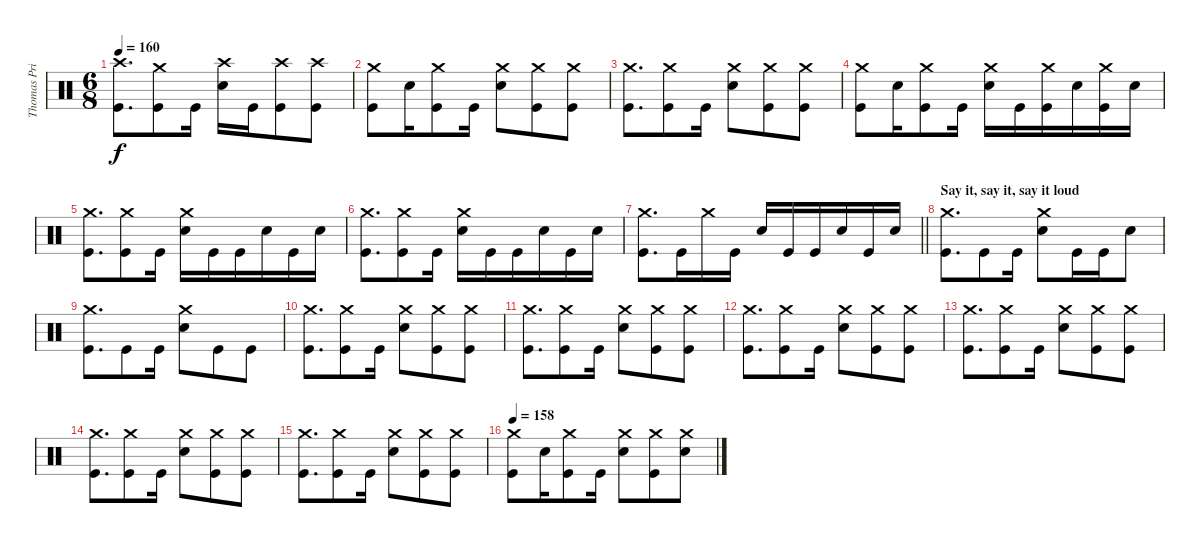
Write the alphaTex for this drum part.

\track ("Thomas Pridgen" "Thomas Pri") {instrument percussion}
\staff {score}
\articulation defaults
\ts (6 8)
\tempo 160
\clef neutral
\ks c
("Crash high (hit)" "Kick (hit)").8{d dy f} ("Crash medium (hit)" "Kick (hit)").8 "Kick (hit)".16 ("Crash high (hit)" "Snare (hit) 2").16 "Kick (hit)".16 ("Crash high (hit)" "Kick (hit)").8 ("Crash high (hit)" "Kick (hit)").8 |
("Crash medium (hit)" "Kick (hit)").8 "Snare (hit) 2".16 ("Crash medium (hit)" "Kick (hit)").8 "Kick (hit)".16 ("Crash medium (hit)" "Snare (hit) 2").8 ("Crash medium (hit)" "Kick (hit)").8 ("Crash medium (hit)" "Kick (hit)").8 |
("Crash medium (hit)" "Kick (hit)").8{d} ("Crash medium (hit)" "Kick (hit)").8 "Kick (hit)".16 ("Crash medium (hit)" "Snare (hit) 2").8 ("Crash medium (hit)" "Kick (hit)").8 ("Crash medium (hit)" "Kick (hit)").8 |
("Crash medium (hit)" "Kick (hit)").8 "Snare (hit) 2".16 ("Crash medium (hit)" "Kick (hit)").8 "Kick (hit)".16 ("Crash medium (hit)" "Snare (hit) 2").16 "Kick (hit)".16 ("Crash medium (hit)" "Kick (hit)").16 "Snare (hit) 2".16 ("Crash medium (hit)" "Kick (hit)").16 "Snare (hit) 2".16 |
("Crash medium (hit)" "Kick (hit)").8{d} ("Crash medium (hit)" "Kick (hit)").8 "Kick (hit)".16 ("Crash medium (hit)" "Snare (hit) 2").16 "Kick (hit)".16 "Kick (hit)".16 "Snare (hit) 2".16 "Kick (hit)".16 "Snare (hit) 2".16 |
("Crash medium (hit)" "Kick (hit)").8{d} ("Crash medium (hit)" "Kick (hit)").8 "Kick (hit)".16 ("Crash medium (hit)" "Snare (hit) 2").16 "Kick (hit)".16 "Kick (hit)".16 "Snare (hit) 2".16 "Kick (hit)".16 "Snare (hit) 2".16 |
\barLineRight lightlight
("Crash medium (hit)" "Kick (hit)").8{d} "Kick (hit)".16 "Crash medium (hit)".16 "Kick (hit)".16 "Snare (hit) 2".16 "Kick (hit)".16 "Kick (hit)".16 "Snare (hit) 2".16 "Kick (hit)".16 "Snare (hit) 2".16 |
\section ("" "Say it, say it, say it loud")
("Crash medium (hit)" "Kick (hit)").8{d} "Kick (hit)".8 "Kick (hit)".16 ("Crash medium (hit)" "Snare (hit) 2").8 "Kick (hit)".16 "Kick (hit)".16 "Snare (hit) 2".8 |
("Crash medium (hit)" "Kick (hit)").8{d} "Kick (hit)".8 "Kick (hit)".16 ("Crash medium (hit)" "Snare (hit) 2").8 "Kick (hit)".8 "Kick (hit)".8 |
("Crash medium (hit)" "Kick (hit)").8{d} ("Crash medium (hit)" "Kick (hit)").8 "Kick (hit)".16 ("Crash medium (hit)" "Snare (hit) 2").8 ("Crash medium (hit)" "Kick (hit)").8 ("Crash medium (hit)" "Kick (hit)").8 |
("Crash medium (hit)" "Kick (hit)").8{d} ("Crash medium (hit)" "Kick (hit)").8 "Kick (hit)".16 ("Crash medium (hit)" "Snare (hit) 2").8 ("Crash medium (hit)" "Kick (hit)").8 ("Crash medium (hit)" "Kick (hit)").8 |
("Crash medium (hit)" "Kick (hit)").8{d} ("Crash medium (hit)" "Kick (hit)").8 "Kick (hit)".16 ("Crash medium (hit)" "Snare (hit) 2").8 ("Crash medium (hit)" "Kick (hit)").8 ("Crash medium (hit)" "Kick (hit)").8 |
("Crash medium (hit)" "Kick (hit)").8{d} ("Crash medium (hit)" "Kick (hit)").8 "Kick (hit)".16 ("Crash medium (hit)" "Snare (hit) 2").8 ("Crash medium (hit)" "Kick (hit)").8 ("Crash medium (hit)" "Kick (hit)").8 |
("Crash medium (hit)" "Kick (hit)").8{d} ("Crash medium (hit)" "Kick (hit)").8 "Kick (hit)".16 ("Crash medium (hit)" "Snare (hit) 2").8 ("Crash medium (hit)" "Kick (hit)").8 ("Crash medium (hit)" "Kick (hit)").8 |
("Crash medium (hit)" "Kick (hit)").8{d} ("Crash medium (hit)" "Kick (hit)").8 "Kick (hit)".16 ("Crash medium (hit)" "Snare (hit) 2").8 ("Crash medium (hit)" "Kick (hit)").8 ("Crash medium (hit)" "Kick (hit)").8 |
\tempo 158
("Crash medium (hit)" "Kick (hit)").8 "Snare (hit) 2".16 ("Crash medium (hit)" "Kick (hit)").8 "Kick (hit)".16 ("Crash medium (hit)" "Snare (hit) 2").8 ("Crash medium (hit)" "Kick (hit)").8 ("Crash medium (hit)" "Snare (hit) 2").8
